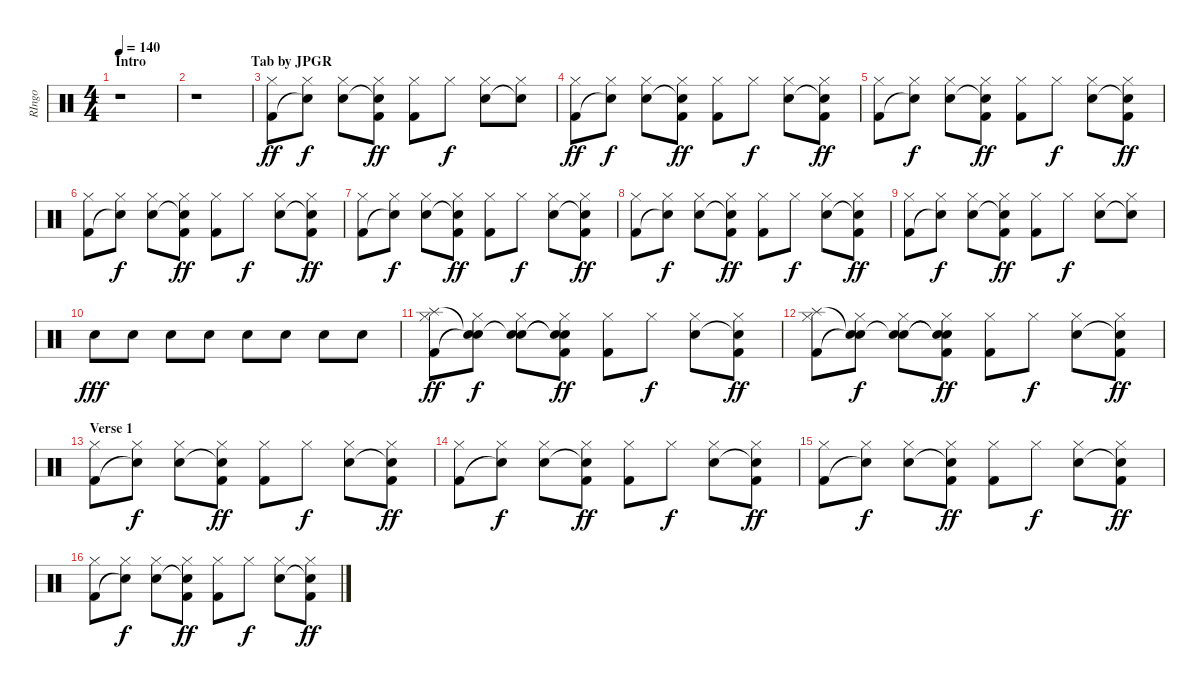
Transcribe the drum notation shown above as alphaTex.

\track ("RIngo" "RIngo") {instrument percussion}
\staff {score}
\articulation defaults
\ts (4 4)
\section ("" "Intro                              Tab by JPGR")
\tempo 140
\clef neutral
\ks c
r.1{dy ff} |
r.1 |
("Hi-Hat (closed)" "Kick (hit) 2").8 ("Hi-Hat (closed)" "Snare (hit)"{t}).8{dy f} ("Hi-Hat (closed)" "Snare (hit) 2").8 ("Hi-Hat (closed)" "Snare (hit)"{t} "Kick (hit) 2").8{dy ff} ("Hi-Hat (closed)" "Kick (hit) 2").8 "Hi-Hat (closed)".8{dy f} ("Hi-Hat (closed)" "Snare (hit) 2").8 ("Hi-Hat (closed)" "Snare (hit)"{t}).8 |
("Hi-Hat (closed)" "Kick (hit) 2").8{dy ff} ("Hi-Hat (closed)" "Snare (hit)"{t}).8{dy f} ("Hi-Hat (closed)" "Snare (hit) 2").8 ("Hi-Hat (closed)" "Snare (hit)"{t} "Kick (hit) 2").8{dy ff} ("Hi-Hat (closed)" "Kick (hit) 2").8 "Hi-Hat (closed)".8{dy f} ("Hi-Hat (closed)" "Snare (hit) 2").8 ("Hi-Hat (closed)" "Snare (hit)"{t} "Kick (hit) 2").8{dy ff} |
("Hi-Hat (closed)" "Kick (hit) 2").8 ("Hi-Hat (closed)" "Snare (hit)"{t}).8{dy f} ("Hi-Hat (closed)" "Snare (hit) 2").8 ("Hi-Hat (closed)" "Snare (hit)"{t} "Kick (hit) 2").8{dy ff} ("Hi-Hat (closed)" "Kick (hit) 2").8 "Hi-Hat (closed)".8{dy f} ("Hi-Hat (closed)" "Snare (hit) 2").8 ("Hi-Hat (closed)" "Snare (hit)"{t} "Kick (hit) 2").8{dy ff} |
("Hi-Hat (closed)" "Kick (hit) 2").8 ("Hi-Hat (closed)" "Snare (hit)"{t}).8{dy f} ("Hi-Hat (closed)" "Snare (hit) 2").8 ("Hi-Hat (closed)" "Snare (hit)"{t} "Kick (hit) 2").8{dy ff} ("Hi-Hat (closed)" "Kick (hit) 2").8 "Hi-Hat (closed)".8{dy f} ("Hi-Hat (closed)" "Snare (hit) 2").8 ("Hi-Hat (closed)" "Snare (hit)"{t} "Kick (hit) 2").8{dy ff} |
("Hi-Hat (closed)" "Kick (hit) 2").8 ("Hi-Hat (closed)" "Snare (hit)"{t}).8{dy f} ("Hi-Hat (closed)" "Snare (hit) 2").8 ("Hi-Hat (closed)" "Snare (hit)"{t} "Kick (hit) 2").8{dy ff} ("Hi-Hat (closed)" "Kick (hit) 2").8 "Hi-Hat (closed)".8{dy f} ("Hi-Hat (closed)" "Snare (hit) 2").8 ("Hi-Hat (closed)" "Snare (hit)"{t} "Kick (hit) 2").8{dy ff} |
("Hi-Hat (closed)" "Kick (hit) 2").8 ("Hi-Hat (closed)" "Snare (hit)"{t}).8{dy f} ("Hi-Hat (closed)" "Snare (hit) 2").8 ("Hi-Hat (closed)" "Snare (hit)"{t} "Kick (hit) 2").8{dy ff} ("Hi-Hat (closed)" "Kick (hit) 2").8 "Hi-Hat (closed)".8{dy f} ("Hi-Hat (closed)" "Snare (hit) 2").8 ("Hi-Hat (closed)" "Snare (hit)"{t} "Kick (hit) 2").8{dy ff} |
("Hi-Hat (closed)" "Kick (hit) 2").8 ("Hi-Hat (closed)" "Snare (hit)"{t}).8{dy f} ("Hi-Hat (closed)" "Snare (hit) 2").8 ("Hi-Hat (closed)" "Snare (hit)"{t} "Kick (hit) 2").8{dy ff} ("Hi-Hat (closed)" "Kick (hit) 2").8 "Hi-Hat (closed)".8{dy f} ("Hi-Hat (closed)" "Snare (hit) 2").8 ("Hi-Hat (closed)" "Snare (hit)"{t}).8 |
"Snare (hit) 2".8{dy fff} "Snare (hit) 2".8 "Snare (hit) 2".8 "Snare (hit) 2".8 "Snare (hit) 2".8 "Snare (hit) 2".8 "Snare (hit) 2".8 "Snare (hit) 2".8 |
("Splash (hit)" "Hi-Hat (closed)" "Kick (hit) 2").8{dy ff} ("Snare (hit)"{t} "Hi-Hat (closed)" "Snare (hit)"{t}).8{dy f} ("Snare (hit)"{t} "Hi-Hat (closed)" "Snare (hit) 2").8 ("Snare (hit)"{t} "Hi-Hat (closed)" "Snare (hit)"{t} "Kick (hit) 2").8{dy ff} ("Hi-Hat (closed)" "Kick (hit) 2").8 "Hi-Hat (closed)".8{dy f} ("Hi-Hat (closed)" "Snare (hit) 2").8 ("Hi-Hat (closed)" "Snare (hit)"{t} "Kick (hit) 2").8{dy ff} |
("Splash (hit)" "Hi-Hat (closed)" "Kick (hit) 2").8 ("Snare (hit)"{t} "Hi-Hat (closed)" "Snare (hit)"{t}).8{dy f} ("Snare (hit)"{t} "Hi-Hat (closed)" "Snare (hit) 2").8 ("Snare (hit)"{t} "Hi-Hat (closed)" "Snare (hit)"{t} "Kick (hit) 2").8{dy ff} ("Hi-Hat (closed)" "Kick (hit) 2").8 "Hi-Hat (closed)".8{dy f} ("Hi-Hat (closed)" "Snare (hit) 2").8 ("Hi-Hat (closed)" "Snare (hit)"{t} "Kick (hit) 2").8{dy ff} |
\section ("" "Verse 1")
("Hi-Hat (closed)" "Kick (hit) 2").8 ("Hi-Hat (closed)" "Snare (hit)"{t}).8{dy f} ("Hi-Hat (closed)" "Snare (hit) 2").8 ("Hi-Hat (closed)" "Snare (hit)"{t} "Kick (hit) 2").8{dy ff} ("Hi-Hat (closed)" "Kick (hit) 2").8 "Hi-Hat (closed)".8{dy f} ("Hi-Hat (closed)" "Snare (hit) 2").8 ("Hi-Hat (closed)" "Snare (hit)"{t} "Kick (hit) 2").8{dy ff} |
("Hi-Hat (closed)" "Kick (hit) 2").8 ("Hi-Hat (closed)" "Snare (hit)"{t}).8{dy f} ("Hi-Hat (closed)" "Snare (hit) 2").8 ("Hi-Hat (closed)" "Snare (hit)"{t} "Kick (hit) 2").8{dy ff} ("Hi-Hat (closed)" "Kick (hit) 2").8 "Hi-Hat (closed)".8{dy f} ("Hi-Hat (closed)" "Snare (hit) 2").8 ("Hi-Hat (closed)" "Snare (hit)"{t} "Kick (hit) 2").8{dy ff} |
("Hi-Hat (closed)" "Kick (hit) 2").8 ("Hi-Hat (closed)" "Snare (hit)"{t}).8{dy f} ("Hi-Hat (closed)" "Snare (hit) 2").8 ("Hi-Hat (closed)" "Snare (hit)"{t} "Kick (hit) 2").8{dy ff} ("Hi-Hat (closed)" "Kick (hit) 2").8 "Hi-Hat (closed)".8{dy f} ("Hi-Hat (closed)" "Snare (hit) 2").8 ("Hi-Hat (closed)" "Snare (hit)"{t} "Kick (hit) 2").8{dy ff} |
("Hi-Hat (closed)" "Kick (hit) 2").8 ("Hi-Hat (closed)" "Snare (hit)"{t}).8{dy f} ("Hi-Hat (closed)" "Snare (hit) 2").8 ("Hi-Hat (closed)" "Snare (hit)"{t} "Kick (hit) 2").8{dy ff} ("Hi-Hat (closed)" "Kick (hit) 2").8 "Hi-Hat (closed)".8{dy f} ("Hi-Hat (closed)" "Snare (hit) 2").8 ("Hi-Hat (closed)" "Snare (hit)"{t} "Kick (hit) 2").8{dy ff}
